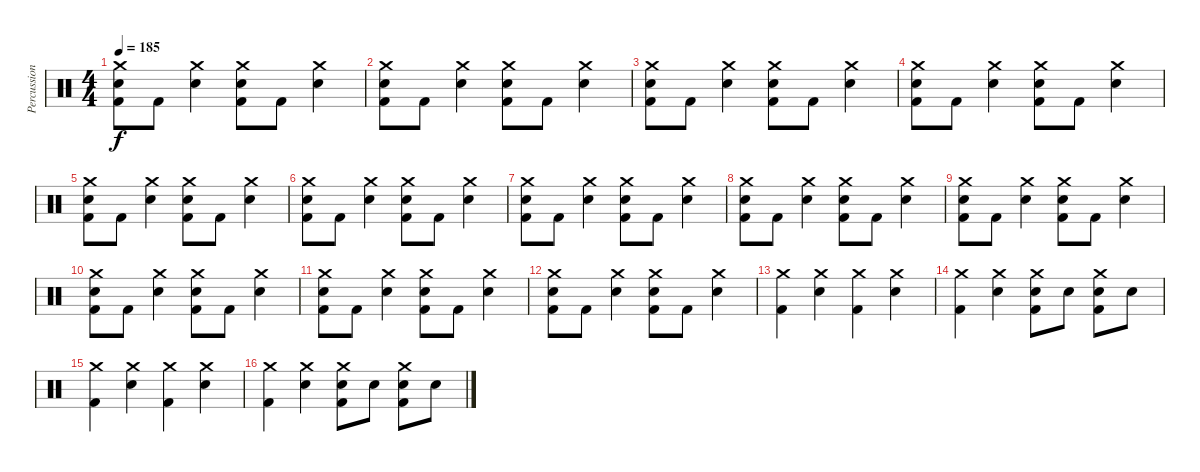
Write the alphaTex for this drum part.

\track ("Percussion" "Percussion") {instrument percussion}
\staff {score}
\articulation defaults
\ts (4 4)
\tempo 185
\clef neutral
\ks c
("Crash medium (hit)" "Snare (hit) 2" "Kick (hit) 2").8{dy f} "Kick (hit) 2".8 ("Crash medium (hit)" "Snare (hit) 2").4 ("Crash medium (hit)" "Snare (hit) 2" "Kick (hit) 2").8 "Kick (hit) 2".8 ("Crash medium (hit)" "Snare (hit) 2").4 |
("Crash medium (hit)" "Snare (hit) 2" "Kick (hit) 2").8 "Kick (hit) 2".8 ("Crash medium (hit)" "Snare (hit) 2").4 ("Crash medium (hit)" "Snare (hit) 2" "Kick (hit) 2").8 "Kick (hit) 2".8 ("Crash medium (hit)" "Snare (hit) 2").4 |
("Crash medium (hit)" "Snare (hit) 2" "Kick (hit) 2").8 "Kick (hit) 2".8 ("Crash medium (hit)" "Snare (hit) 2").4 ("Crash medium (hit)" "Snare (hit) 2" "Kick (hit) 2").8 "Kick (hit) 2".8 ("Crash medium (hit)" "Snare (hit) 2").4 |
("Crash medium (hit)" "Snare (hit) 2" "Kick (hit) 2").8 "Kick (hit) 2".8 ("Crash medium (hit)" "Snare (hit) 2").4 ("Crash medium (hit)" "Snare (hit) 2" "Kick (hit) 2").8 "Kick (hit) 2".8 ("Crash medium (hit)" "Snare (hit) 2").4 |
("Crash medium (hit)" "Snare (hit) 2" "Kick (hit) 2").8 "Kick (hit) 2".8 ("Crash medium (hit)" "Snare (hit) 2").4 ("Crash medium (hit)" "Snare (hit) 2" "Kick (hit) 2").8 "Kick (hit) 2".8 ("Crash medium (hit)" "Snare (hit) 2").4 |
("Crash medium (hit)" "Snare (hit) 2" "Kick (hit) 2").8 "Kick (hit) 2".8 ("Crash medium (hit)" "Snare (hit) 2").4 ("Crash medium (hit)" "Snare (hit) 2" "Kick (hit) 2").8 "Kick (hit) 2".8 ("Crash medium (hit)" "Snare (hit) 2").4 |
("Crash medium (hit)" "Snare (hit) 2" "Kick (hit) 2").8 "Kick (hit) 2".8 ("Crash medium (hit)" "Snare (hit) 2").4 ("Crash medium (hit)" "Snare (hit) 2" "Kick (hit) 2").8 "Kick (hit) 2".8 ("Crash medium (hit)" "Snare (hit) 2").4 |
("Crash medium (hit)" "Snare (hit) 2" "Kick (hit) 2").8 "Kick (hit) 2".8 ("Crash medium (hit)" "Snare (hit) 2").4 ("Crash medium (hit)" "Snare (hit) 2" "Kick (hit) 2").8 "Kick (hit) 2".8 ("Crash medium (hit)" "Snare (hit) 2").4 |
("Crash medium (hit)" "Snare (hit) 2" "Kick (hit) 2").8 "Kick (hit) 2".8 ("Crash medium (hit)" "Snare (hit) 2").4 ("Crash medium (hit)" "Snare (hit) 2" "Kick (hit) 2").8 "Kick (hit) 2".8 ("Crash medium (hit)" "Snare (hit) 2").4 |
("Crash medium (hit)" "Snare (hit) 2" "Kick (hit) 2").8 "Kick (hit) 2".8 ("Crash medium (hit)" "Snare (hit) 2").4 ("Crash medium (hit)" "Snare (hit) 2" "Kick (hit) 2").8 "Kick (hit) 2".8 ("Crash medium (hit)" "Snare (hit) 2").4 |
("Crash medium (hit)" "Snare (hit) 2" "Kick (hit) 2").8 "Kick (hit) 2".8 ("Crash medium (hit)" "Snare (hit) 2").4 ("Crash medium (hit)" "Snare (hit) 2" "Kick (hit) 2").8 "Kick (hit) 2".8 ("Crash medium (hit)" "Snare (hit) 2").4 |
("Crash medium (hit)" "Snare (hit) 2" "Kick (hit) 2").8 "Kick (hit) 2".8 ("Crash medium (hit)" "Snare (hit) 2").4 ("Crash medium (hit)" "Snare (hit) 2" "Kick (hit) 2").8 "Kick (hit) 2".8 ("Crash medium (hit)" "Snare (hit) 2").4 |
("Crash medium (hit)" "Kick (hit) 2").4 ("Crash medium (hit)" "Snare (hit) 2").4 ("Crash medium (hit)" "Kick (hit) 2").4 ("Crash medium (hit)" "Snare (hit) 2").4 |
("Crash medium (hit)" "Kick (hit) 2").4 ("Crash medium (hit)" "Snare (hit) 2").4 ("Crash medium (hit)" "Snare (hit) 2" "Kick (hit) 2").8 "Snare (hit) 2".8 ("Crash medium (hit)" "Snare (hit) 2" "Kick (hit) 2").8 "Snare (hit) 2".8 |
("Crash medium (hit)" "Kick (hit) 2").4 ("Crash medium (hit)" "Snare (hit) 2").4 ("Crash medium (hit)" "Kick (hit) 2").4 ("Crash medium (hit)" "Snare (hit) 2").4 |
("Crash medium (hit)" "Kick (hit) 2").4 ("Crash medium (hit)" "Snare (hit) 2").4 ("Crash medium (hit)" "Snare (hit) 2" "Kick (hit) 2").8 "Snare (hit) 2".8 ("Crash medium (hit)" "Snare (hit) 2" "Kick (hit) 2").8 "Snare (hit) 2".8
